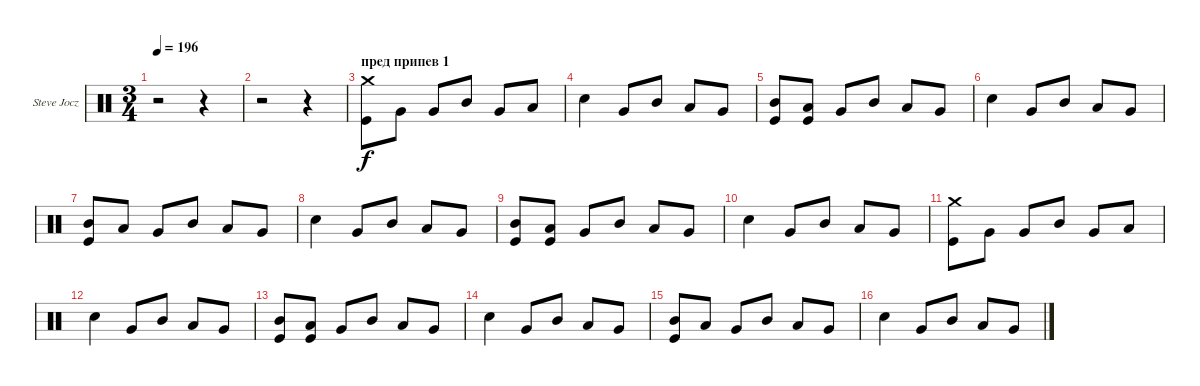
\defaultSystemsLayout 4
\bracketExtendMode groupsimilarinstruments
\firstSystemTrackNameOrientation horizontal
\otherSystemsTrackNameOrientation horizontal
\track ("Steve Jocz " "Steve Jocz") {instrument percussion}
\staff {score}
\articulation defaults
\ts (3 4)
\tempo 196
\clef neutral
\scale
0.333333
\ks c
r.2{dy f} r.4 |
\scale
0.333333 r.2 r.4 |
\section ("" "пред припев 1")
\scale
0.333333 ("Crash medium (hit)" "Kick (hit)").8 "Very Low Tom (hit)".8 "Very Low Tom (hit)".8 "Mid Tom (hit)".8 "Very Low Tom (hit)".8 "Low Tom (hit)".8 |
\scale
0.333333 "Snare (hit) 2".4 "Very Low Tom (hit)".8 "Mid Tom (hit)".8 "Low Tom (hit)".8 "Very Low Tom (hit)".8 |
\scale
0.333333 ("Mid Tom (hit)" "Kick (hit)").8 ("Low Tom (hit)" "Kick (hit)").8 "Very Low Tom (hit)".8 "Mid Tom (hit)".8 "Low Tom (hit)".8 "Very Low Tom (hit)".8 |
\scale
0.333333 "Snare (hit) 2".4 "Very Low Tom (hit)".8 "Mid Tom (hit)".8 "Low Tom (hit)".8 "Very Low Tom (hit)".8 |
\scale
0.333333 ("Mid Tom (hit)" "Kick (hit)").8 "Low Tom (hit)".8 "Very Low Tom (hit)".8 "Mid Tom (hit)".8 "Low Tom (hit)".8 "Very Low Tom (hit)".8 |
\scale
0.333333 "Snare (hit) 2".4 "Very Low Tom (hit)".8 "Mid Tom (hit)".8 "Low Tom (hit)".8 "Very Low Tom (hit)".8 |
\scale
0.333333 ("Mid Tom (hit)" "Kick (hit)").8 ("Low Tom (hit)" "Kick (hit)").8 "Very Low Tom (hit)".8 "Mid Tom (hit)".8 "Low Tom (hit)".8 "Very Low Tom (hit)".8 |
\scale
0.333333 "Snare (hit) 2".4 "Very Low Tom (hit)".8 "Mid Tom (hit)".8 "Low Tom (hit)".8 "Very Low Tom (hit)".8 |
\scale
0.333333 ("Crash medium (hit)" "Kick (hit)").8 "Very Low Tom (hit)".8 "Very Low Tom (hit)".8 "Mid Tom (hit)".8 "Very Low Tom (hit)".8 "Low Tom (hit)".8 |
\scale
0.333333 "Snare (hit) 2".4 "Very Low Tom (hit)".8 "Mid Tom (hit)".8 "Low Tom (hit)".8 "Very Low Tom (hit)".8 |
\scale
0.333333 ("Mid Tom (hit)" "Kick (hit)").8 ("Low Tom (hit)" "Kick (hit)").8 "Very Low Tom (hit)".8 "Mid Tom (hit)".8 "Low Tom (hit)".8 "Very Low Tom (hit)".8 |
\scale
0.333333 "Snare (hit) 2".4 "Very Low Tom (hit)".8 "Mid Tom (hit)".8 "Low Tom (hit)".8 "Very Low Tom (hit)".8 |
\scale
0.333333 ("Mid Tom (hit)" "Kick (hit)").8 "Low Tom (hit)".8 "Very Low Tom (hit)".8 "Mid Tom (hit)".8 "Low Tom (hit)".8 "Very Low Tom (hit)".8 |
\scale
0.333333 "Snare (hit) 2".4 "Very Low Tom (hit)".8 "Mid Tom (hit)".8 "Low Tom (hit)".8 "Very Low Tom (hit)".8
